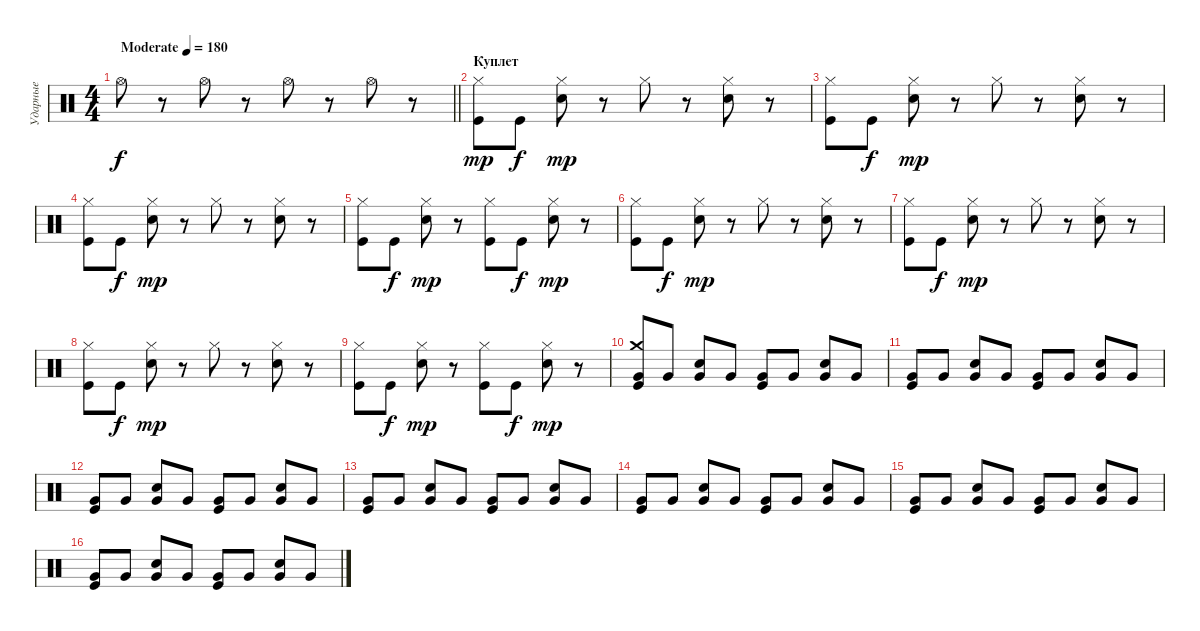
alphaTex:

\track ("Ударные" "Ударные") {instrument percussion}
\staff {score}
\articulation defaults
\ts (4 4)
\tempo (180 "Moderate")
\clef neutral
\barLineRight lightlight
\ks c "Hi-Hat (open)".8{dy f}
r.8 "Hi-Hat (open)".8 r.8 "Hi-Hat (open)".8 r.8 "Hi-Hat (open)".8 r.8 |
\section ("" "Куплет")
("Hi-Hat (closed)" "Kick (hit)").8{dy mp} "Kick (hit)".8{dy f} ("Hi-Hat (closed)" "Electric Snare (hit)").8{dy mp} r.8 "Hi-Hat (closed)".8 r.8 ("Hi-Hat (closed)" "Electric Snare (hit)").8 r.8 |
("Hi-Hat (closed)" "Kick (hit)").8 "Kick (hit)".8{dy f} ("Hi-Hat (closed)" "Electric Snare (hit)").8{dy mp} r.8 "Hi-Hat (closed)".8 r.8 ("Hi-Hat (closed)" "Electric Snare (hit)").8 r.8 |
("Hi-Hat (closed)" "Kick (hit)").8 "Kick (hit)".8{dy f} ("Hi-Hat (closed)" "Electric Snare (hit)").8{dy mp} r.8 "Hi-Hat (closed)".8 r.8 ("Hi-Hat (closed)" "Electric Snare (hit)").8 r.8 |
("Hi-Hat (closed)" "Kick (hit)").8 "Kick (hit)".8{dy f} ("Hi-Hat (closed)" "Electric Snare (hit)").8{dy mp} r.8 ("Hi-Hat (closed)" "Kick (hit)").8 "Kick (hit)".8{dy f} ("Hi-Hat (closed)" "Electric Snare (hit)").8{dy mp} r.8 |
("Hi-Hat (closed)" "Kick (hit)").8 "Kick (hit)".8{dy f} ("Hi-Hat (closed)" "Electric Snare (hit)").8{dy mp} r.8 "Hi-Hat (closed)".8 r.8 ("Hi-Hat (closed)" "Electric Snare (hit)").8 r.8 |
("Hi-Hat (closed)" "Kick (hit)").8 "Kick (hit)".8{dy f} ("Hi-Hat (closed)" "Electric Snare (hit)").8{dy mp} r.8 "Hi-Hat (closed)".8 r.8 ("Hi-Hat (closed)" "Electric Snare (hit)").8 r.8 |
("Hi-Hat (closed)" "Kick (hit)").8 "Kick (hit)".8{dy f} ("Hi-Hat (closed)" "Electric Snare (hit)").8{dy mp} r.8 "Hi-Hat (closed)".8 r.8 ("Hi-Hat (closed)" "Electric Snare (hit)").8 r.8 |
("Hi-Hat (closed)" "Kick (hit)").8 "Kick (hit)".8{dy f} ("Hi-Hat (closed)" "Electric Snare (hit)").8{dy mp} r.8 ("Hi-Hat (closed)" "Kick (hit)").8 "Kick (hit)".8{dy f} ("Hi-Hat (closed)" "Electric Snare (hit)").8{dy mp} r.8 |
("Crash medium (hit)" "Kick (hit)" "Very Low Tom (hit)").8 "Very Low Tom (hit)".8 ("Electric Snare (hit)" "Very Low Tom (hit)").8 "Very Low Tom (hit)".8 ("Kick (hit)" "Very Low Tom (hit)").8 "Very Low Tom (hit)".8 ("Electric Snare (hit)" "Very Low Tom (hit)").8 "Very Low Tom (hit)".8 |
("Kick (hit)" "Very Low Tom (hit)").8 "Very Low Tom (hit)".8 ("Electric Snare (hit)" "Very Low Tom (hit)").8 "Very Low Tom (hit)".8 ("Kick (hit)" "Very Low Tom (hit)").8 "Very Low Tom (hit)".8 ("Electric Snare (hit)" "Very Low Tom (hit)").8 "Very Low Tom (hit)".8 |
("Kick (hit)" "Very Low Tom (hit)").8 "Very Low Tom (hit)".8 ("Electric Snare (hit)" "Very Low Tom (hit)").8 "Very Low Tom (hit)".8 ("Kick (hit)" "Very Low Tom (hit)").8 "Very Low Tom (hit)".8 ("Electric Snare (hit)" "Very Low Tom (hit)").8 "Very Low Tom (hit)".8 |
("Kick (hit)" "Very Low Tom (hit)").8 "Very Low Tom (hit)".8 ("Electric Snare (hit)" "Very Low Tom (hit)").8 "Very Low Tom (hit)".8 ("Kick (hit)" "Very Low Tom (hit)").8 "Very Low Tom (hit)".8 ("Electric Snare (hit)" "Very Low Tom (hit)").8 "Very Low Tom (hit)".8 |
("Kick (hit)" "Very Low Tom (hit)").8 "Very Low Tom (hit)".8 ("Electric Snare (hit)" "Very Low Tom (hit)").8 "Very Low Tom (hit)".8 ("Kick (hit)" "Very Low Tom (hit)").8 "Very Low Tom (hit)".8 ("Electric Snare (hit)" "Very Low Tom (hit)").8 "Very Low Tom (hit)".8 |
("Kick (hit)" "Very Low Tom (hit)").8 "Very Low Tom (hit)".8 ("Electric Snare (hit)" "Very Low Tom (hit)").8 "Very Low Tom (hit)".8 ("Kick (hit)" "Very Low Tom (hit)").8 "Very Low Tom (hit)".8 ("Electric Snare (hit)" "Very Low Tom (hit)").8 "Very Low Tom (hit)".8 |
("Kick (hit)" "Very Low Tom (hit)").8 "Very Low Tom (hit)".8 ("Electric Snare (hit)" "Very Low Tom (hit)").8 "Very Low Tom (hit)".8 ("Kick (hit)" "Very Low Tom (hit)").8 "Very Low Tom (hit)".8 ("Electric Snare (hit)" "Very Low Tom (hit)").8 "Very Low Tom (hit)".8
